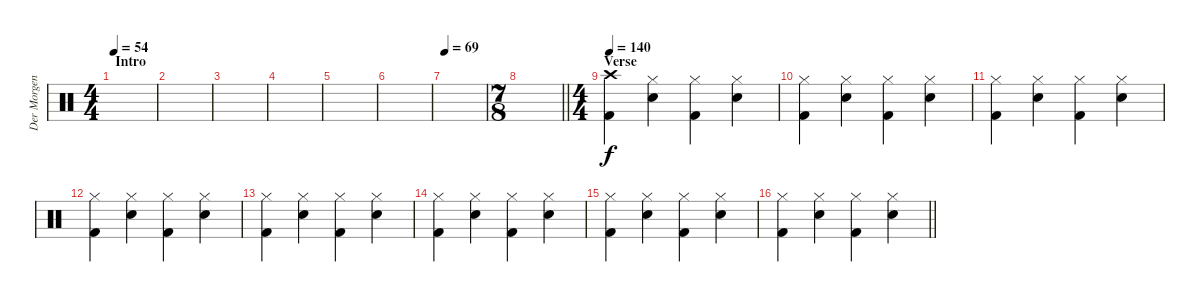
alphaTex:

\track ("Der Morgenstern" "Der Morgen") {instrument percussion}
\staff {score}
\articulation defaults
\ts (4 4)
\section ("" "Intro")
\tempo 54
\clef neutral
\ks c
|
|
|
|
|
|
\tempo 69
|
\ts (7 8)
\barLineRight lightlight
|
\ts (4 4)
\section ("" "Verse")
\tempo 140
("Crash high (hit)" "Kick (hit) 2").4 ("Hi-Hat (closed)" "Snare (hit) 2").4 ("Hi-Hat (closed)" "Kick (hit) 2").4 ("Hi-Hat (closed)" "Snare (hit) 2").4 |
("Hi-Hat (closed)" "Kick (hit) 2").4 ("Hi-Hat (closed)" "Snare (hit) 2").4 ("Hi-Hat (closed)" "Kick (hit) 2").4 ("Hi-Hat (closed)" "Snare (hit) 2").4 |
("Hi-Hat (closed)" "Kick (hit) 2").4 ("Hi-Hat (closed)" "Snare (hit) 2").4 ("Hi-Hat (closed)" "Kick (hit) 2").4 ("Hi-Hat (closed)" "Snare (hit) 2").4 |
("Hi-Hat (closed)" "Kick (hit) 2").4 ("Hi-Hat (closed)" "Snare (hit) 2").4 ("Hi-Hat (closed)" "Kick (hit) 2").4 ("Hi-Hat (closed)" "Snare (hit) 2").4 |
("Hi-Hat (closed)" "Kick (hit) 2").4 ("Hi-Hat (closed)" "Snare (hit) 2").4 ("Hi-Hat (closed)" "Kick (hit) 2").4 ("Hi-Hat (closed)" "Snare (hit) 2").4 |
("Hi-Hat (closed)" "Kick (hit) 2").4 ("Hi-Hat (closed)" "Snare (hit) 2").4 ("Hi-Hat (closed)" "Kick (hit) 2").4 ("Hi-Hat (closed)" "Snare (hit) 2").4 |
("Hi-Hat (closed)" "Kick (hit) 2").4 ("Hi-Hat (closed)" "Snare (hit) 2").4 ("Hi-Hat (closed)" "Kick (hit) 2").4 ("Hi-Hat (closed)" "Snare (hit) 2").4 |
\barLineRight lightlight
("Hi-Hat (closed)" "Kick (hit) 2").4 ("Hi-Hat (closed)" "Snare (hit) 2").4 ("Hi-Hat (closed)" "Kick (hit) 2").4 ("Hi-Hat (closed)" "Snare (hit) 2").4
